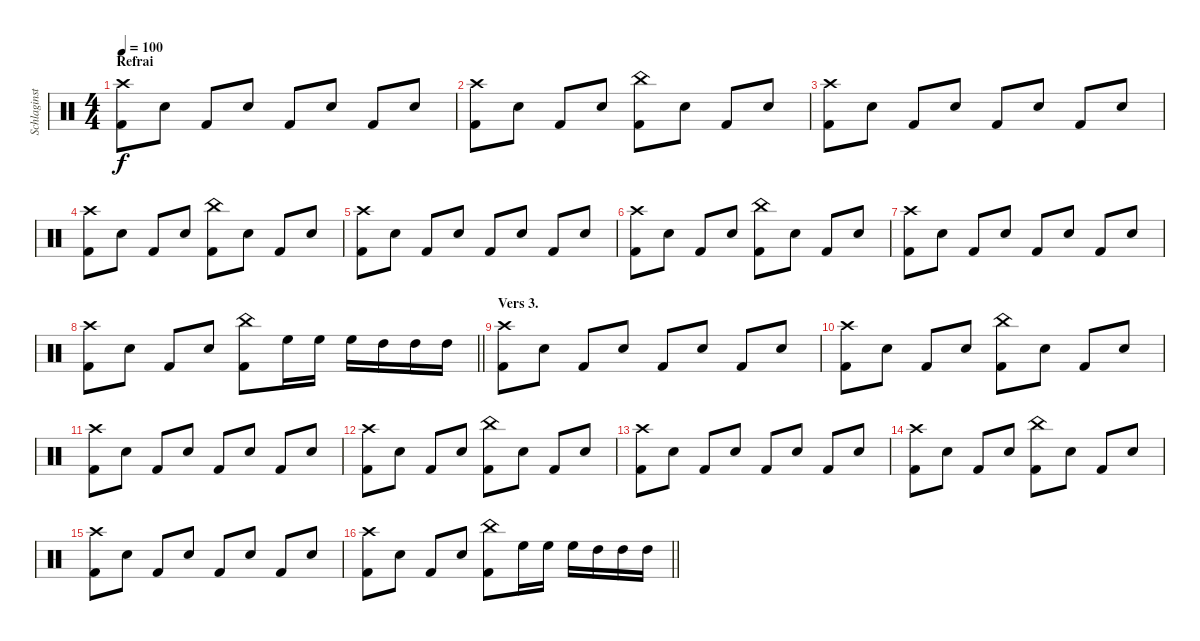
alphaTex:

\track ("Schlaginstrumente - Auswahl" "Schlaginst") {instrument percussion}
\staff {score}
\articulation defaults
\ts (4 4)
\section ("" "Refrai")
\tempo 100
\clef neutral
\ks c
("Crash high (hit)" "Kick (hit) 2").8{dy f} "Snare (hit) 2".8 "Kick (hit) 2".8 "Snare (hit) 2".8 "Kick (hit) 2".8 "Snare (hit) 2".8 "Kick (hit) 2".8 "Snare (hit) 2".8 |
("Crash high (hit)" "Kick (hit) 2").8 "Snare (hit) 2".8 "Kick (hit) 2".8 "Snare (hit) 2".8 ("China (hit)" "Kick (hit) 2").8 "Snare (hit) 2".8 "Kick (hit) 2".8 "Snare (hit) 2".8 |
("Crash high (hit)" "Kick (hit) 2").8 "Snare (hit) 2".8 "Kick (hit) 2".8 "Snare (hit) 2".8 "Kick (hit) 2".8 "Snare (hit) 2".8 "Kick (hit) 2".8 "Snare (hit) 2".8 |
("Crash high (hit)" "Kick (hit) 2").8 "Snare (hit) 2".8 "Kick (hit) 2".8 "Snare (hit) 2".8 ("China (hit)" "Kick (hit) 2").8 "Snare (hit) 2".8 "Kick (hit) 2".8 "Snare (hit) 2".8 |
("Crash high (hit)" "Kick (hit) 2").8 "Snare (hit) 2".8 "Kick (hit) 2".8 "Snare (hit) 2".8 "Kick (hit) 2".8 "Snare (hit) 2".8 "Kick (hit) 2".8 "Snare (hit) 2".8 |
("Crash high (hit)" "Kick (hit) 2").8 "Snare (hit) 2".8 "Kick (hit) 2".8 "Snare (hit) 2".8 ("China (hit)" "Kick (hit) 2").8 "Snare (hit) 2".8 "Kick (hit) 2".8 "Snare (hit) 2".8 |
("Crash high (hit)" "Kick (hit) 2").8 "Snare (hit) 2".8 "Kick (hit) 2".8 "Snare (hit) 2".8 "Kick (hit) 2".8 "Snare (hit) 2".8 "Kick (hit) 2".8 "Snare (hit) 2".8 |
\barLineRight lightlight
("Crash high (hit)" "Kick (hit) 2").8 "Snare (hit) 2".8 "Kick (hit) 2".8 "Snare (hit) 2".8 ("China (hit)" "Kick (hit) 2").8 "High Floor Tom (hit)".16 "High Floor Tom (hit)".16 "High Floor Tom (hit)".16 "High Tom (hit)".16 "High Tom (hit)".16 "High Tom (hit)".16 |
\section ("" "Vers 3.")
("Crash high (hit)" "Kick (hit) 2").8 "Snare (hit) 2".8 "Kick (hit) 2".8 "Snare (hit) 2".8 "Kick (hit) 2".8 "Snare (hit) 2".8 "Kick (hit) 2".8 "Snare (hit) 2".8 |
("Crash high (hit)" "Kick (hit) 2").8 "Snare (hit) 2".8 "Kick (hit) 2".8 "Snare (hit) 2".8 ("China (hit)" "Kick (hit) 2").8 "Snare (hit) 2".8 "Kick (hit) 2".8 "Snare (hit) 2".8 |
("Crash high (hit)" "Kick (hit) 2").8 "Snare (hit) 2".8 "Kick (hit) 2".8 "Snare (hit) 2".8 "Kick (hit) 2".8 "Snare (hit) 2".8 "Kick (hit) 2".8 "Snare (hit) 2".8 |
("Crash high (hit)" "Kick (hit) 2").8 "Snare (hit) 2".8 "Kick (hit) 2".8 "Snare (hit) 2".8 ("China (hit)" "Kick (hit) 2").8 "Snare (hit) 2".8 "Kick (hit) 2".8 "Snare (hit) 2".8 |
("Crash high (hit)" "Kick (hit) 2").8 "Snare (hit) 2".8 "Kick (hit) 2".8 "Snare (hit) 2".8 "Kick (hit) 2".8 "Snare (hit) 2".8 "Kick (hit) 2".8 "Snare (hit) 2".8 |
("Crash high (hit)" "Kick (hit) 2").8 "Snare (hit) 2".8 "Kick (hit) 2".8 "Snare (hit) 2".8 ("China (hit)" "Kick (hit) 2").8 "Snare (hit) 2".8 "Kick (hit) 2".8 "Snare (hit) 2".8 |
("Crash high (hit)" "Kick (hit) 2").8 "Snare (hit) 2".8 "Kick (hit) 2".8 "Snare (hit) 2".8 "Kick (hit) 2".8 "Snare (hit) 2".8 "Kick (hit) 2".8 "Snare (hit) 2".8 |
\barLineRight lightlight
("Crash high (hit)" "Kick (hit) 2").8 "Snare (hit) 2".8 "Kick (hit) 2".8 "Snare (hit) 2".8 ("China (hit)" "Kick (hit) 2").8 "High Floor Tom (hit)".16 "High Floor Tom (hit)".16 "High Floor Tom (hit)".16 "High Tom (hit)".16 "High Tom (hit)".16 "High Tom (hit)".16
